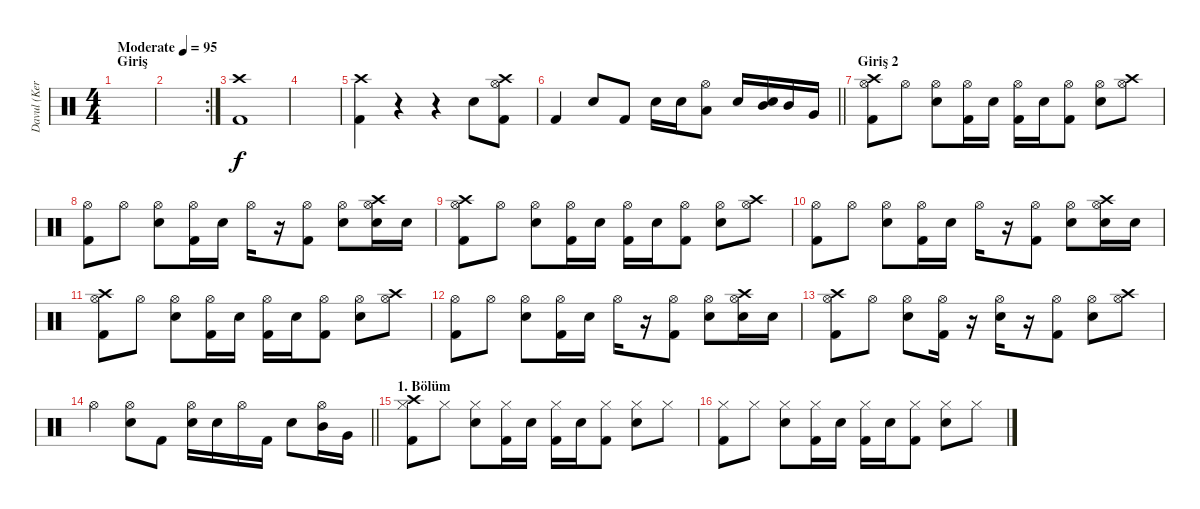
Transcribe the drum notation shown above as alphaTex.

\track ("Davul (Kerem Kabadayı)" "Davul (Ker") {instrument percussion}
\staff {score}
\articulation defaults
\ts (4 4)
\section ("" "Giriş")
\tempo (95 "Moderate")
\clef neutral
\ks c
|
\rc 2
|
("Crash high (hit)" "Kick (hit) 2").1 |
|
("Crash high (hit)" "Kick (hit) 2").4 r.4 r.4 "Snare (hit) 2".8 ("Crash high (hit)" "Kick (hit) 2" "Hi-Hat (open)").8 |
\barLineRight lightlight "Kick (hit) 2".4 "Electric Snare (hit)".8 "Kick (hit) 2".8 "Snare (hit) 2".16 "Snare (hit) 2".16
("Low Tom (hit)" "Hi-Hat (open)").8 "Snare (hit) 2".16 ("Mid Tom (hit)" "Snare (hit) 2").16 "Mid Tom (hit)".16 "Very Low Tom (hit)".16 |
\section ("" "Giriş 2")
("Crash high (hit)" "Kick (hit) 2" "Hi-Hat (open)").8 "Hi-Hat (open)".8 ("Snare (hit) 2" "Hi-Hat (open)").8 ("Kick (hit) 2" "Hi-Hat (open)").16 "Snare (hit) 2".16 ("Kick (hit) 2" "Hi-Hat (open)").16 "Snare (hit) 2".16 ("Kick (hit) 2" "Hi-Hat (open)").8 ("Snare (hit) 2" "Hi-Hat (open)").8 ("Crash high (hit)" "Hi-Hat (open)").8 |
("Kick (hit) 2" "Hi-Hat (open)").8 "Hi-Hat (open)".8 ("Snare (hit) 2" "Hi-Hat (open)").8 ("Kick (hit) 2" "Hi-Hat (open)").16 "Snare (hit) 2".16 "Hi-Hat (open)".16 r.16 ("Kick (hit) 2" "Hi-Hat (open)").8 ("Snare (hit) 2" "Hi-Hat (open)").8 ("Crash high (hit)" "Snare (hit) 2" "Hi-Hat (open)").16 "Snare (hit) 2".16 |
("Crash high (hit)" "Kick (hit) 2" "Hi-Hat (open)").8 "Hi-Hat (open)".8 ("Snare (hit) 2" "Hi-Hat (open)").8 ("Kick (hit) 2" "Hi-Hat (open)").16 "Snare (hit) 2".16 ("Kick (hit) 2" "Hi-Hat (open)").16 "Snare (hit) 2".16 ("Kick (hit) 2" "Hi-Hat (open)").8 ("Snare (hit) 2" "Hi-Hat (open)").8 ("Crash high (hit)" "Hi-Hat (open)").8 |
("Kick (hit) 2" "Hi-Hat (open)").8 "Hi-Hat (open)".8 ("Snare (hit) 2" "Hi-Hat (open)").8 ("Kick (hit) 2" "Hi-Hat (open)").16 "Snare (hit) 2".16 "Hi-Hat (open)".16 r.16 ("Kick (hit) 2" "Hi-Hat (open)").8 ("Snare (hit) 2" "Hi-Hat (open)").8 ("Crash high (hit)" "Snare (hit) 2" "Hi-Hat (open)").16 "Snare (hit) 2".16 |
("Crash high (hit)" "Kick (hit) 2" "Hi-Hat (open)").8 "Hi-Hat (open)".8 ("Snare (hit) 2" "Hi-Hat (open)").8 ("Kick (hit) 2" "Hi-Hat (open)").16 "Snare (hit) 2".16 ("Kick (hit) 2" "Hi-Hat (open)").16 "Snare (hit) 2".16 ("Kick (hit) 2" "Hi-Hat (open)").8 ("Snare (hit) 2" "Hi-Hat (open)").8 ("Crash high (hit)" "Hi-Hat (open)").8 |
("Kick (hit) 2" "Hi-Hat (open)").8 "Hi-Hat (open)".8 ("Snare (hit) 2" "Hi-Hat (open)").8 ("Kick (hit) 2" "Hi-Hat (open)").16 "Snare (hit) 2".16 "Hi-Hat (open)".16 r.16 ("Kick (hit) 2" "Hi-Hat (open)").8 ("Snare (hit) 2" "Hi-Hat (open)").8 ("Crash high (hit)" "Snare (hit) 2" "Hi-Hat (open)").16 "Snare (hit) 2".16 |
("Crash high (hit)" "Kick (hit) 2" "Hi-Hat (open)").8 "Hi-Hat (open)".8 ("Snare (hit) 2" "Hi-Hat (open)").8 ("Kick (hit) 2" "Hi-Hat (open)").16 r.16 ("Snare (hit) 2" "Hi-Hat (open)").16 r.16 ("Kick (hit) 2" "Hi-Hat (open)").8 ("Snare (hit) 2" "Hi-Hat (open)").8 ("Crash high (hit)" "Hi-Hat (open)").8 |
\barLineRight lightlight "Hi-Hat (open)".4
("Snare (hit) 2" "Hi-Hat (open)").8 "Kick (hit) 2".8 ("Snare (hit) 2" "Hi-Hat (open)").16 "Snare (hit) 2".16 "Hi-Hat (open)".16 "Kick (hit) 2".16 "Snare (hit) 2".8 ("Mid Tom (hit)" "Hi-Hat (open)").16 "Very Low Tom (hit)".16 |
\section ("" "1. Bölüm")
("Crash high (hit)" "Kick (hit) 2" "Hi-Hat (closed)").8 "Hi-Hat (closed)".8 ("Snare (hit) 2" "Hi-Hat (closed)").8 ("Kick (hit) 2" "Hi-Hat (closed)").16 "Snare (hit) 2".16 ("Kick (hit) 2" "Hi-Hat (closed)").16 "Snare (hit) 2".16 ("Kick (hit) 2" "Hi-Hat (closed)").8 ("Snare (hit) 2" "Hi-Hat (closed)").8 "Hi-Hat (closed)".8 |
("Kick (hit) 2" "Hi-Hat (closed)").8 "Hi-Hat (closed)".8 ("Snare (hit) 2" "Hi-Hat (closed)").8 ("Kick (hit) 2" "Hi-Hat (closed)").16 "Snare (hit) 2".16 ("Kick (hit) 2" "Hi-Hat (closed)").16 "Snare (hit) 2".16 ("Kick (hit) 2" "Hi-Hat (closed)").8 ("Snare (hit) 2" "Hi-Hat (closed)").8 "Hi-Hat (closed)".8
